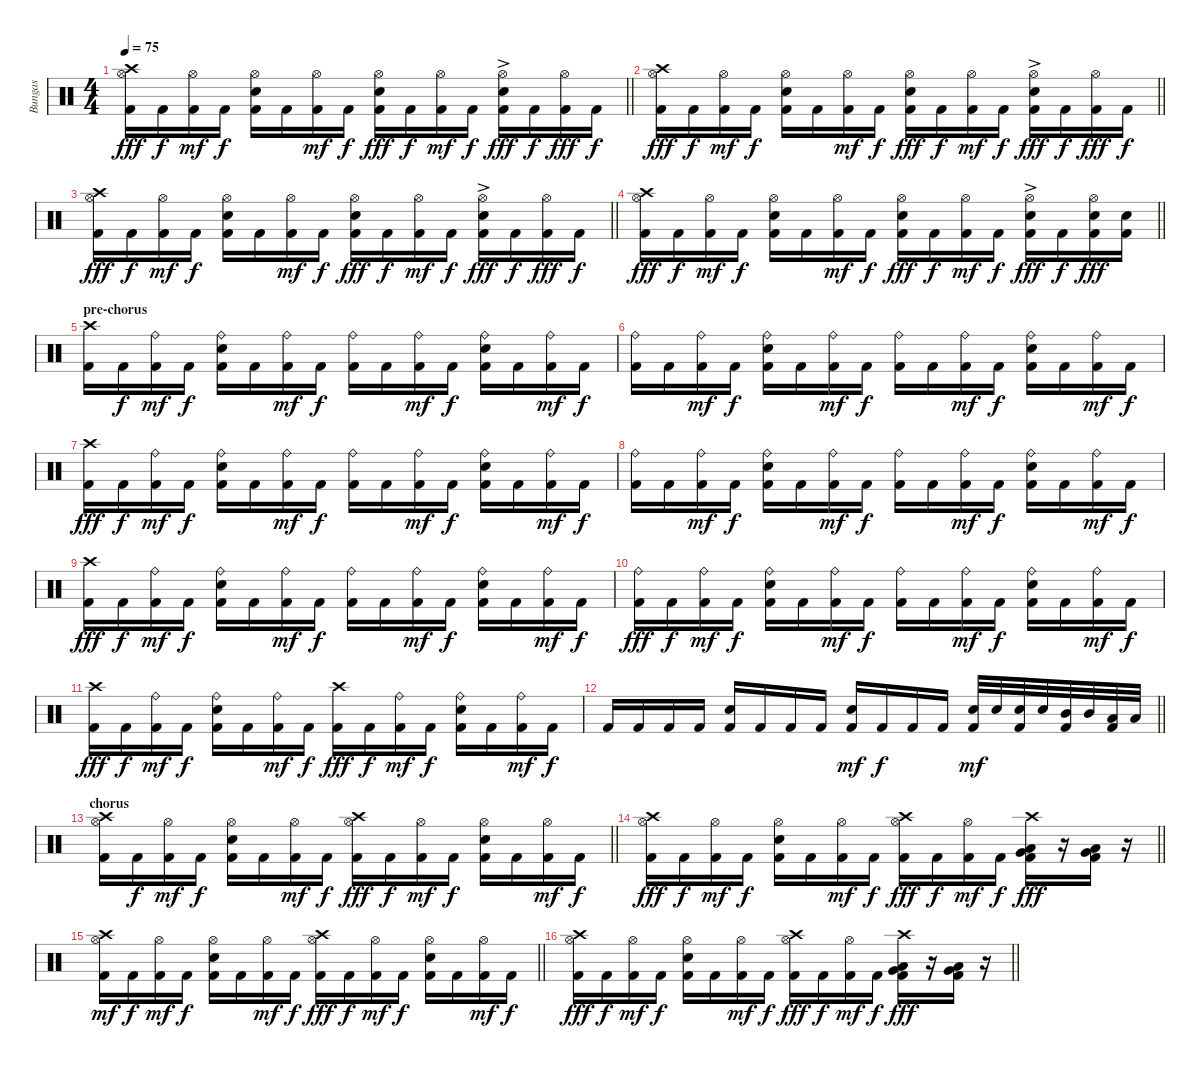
\track ("Bungas" "Bungas") {instrument percussion}
\staff {score}
\articulation defaults
\ts (4 4)
\tempo 75
\clef neutral
\barLineRight lightlight
\ks c
("Hi-Hat (open)" "Crash high (hit)" "Kick (hit) 2").16{dy fff} "Kick (hit) 2".16{dy f} ("Hi-Hat (open)" "Kick (hit) 2").16{dy mf} "Kick (hit) 2".16{dy f} ("Hi-Hat (open)" "Electric Snare (hit)" "Kick (hit) 2").16 "Kick (hit) 2".16 ("Hi-Hat (open)" "Kick (hit) 2").16{dy mf} "Kick (hit) 2".16{dy f} ("Hi-Hat (open)" "Electric Snare (hit)" "Kick (hit) 2").16{dy fff} "Kick (hit) 2".16{dy f} ("Hi-Hat (open)" "Kick (hit) 2").16{dy mf} "Kick (hit) 2".16{dy f} ("Hi-Hat (open)"{ac} "Electric Snare (hit)" "Kick (hit) 2").16{dy fff} "Kick (hit) 2".16{dy f} ("Hi-Hat (open)" "Kick (hit) 2").16{dy fff} "Kick (hit) 2".16{dy f} |
\barLineRight lightlight
("Hi-Hat (open)" "Crash high (hit)" "Kick (hit) 2").16{dy fff} "Kick (hit) 2".16{dy f} ("Hi-Hat (open)" "Kick (hit) 2").16{dy mf} "Kick (hit) 2".16{dy f} ("Hi-Hat (open)" "Electric Snare (hit)" "Kick (hit) 2").16 "Kick (hit) 2".16 ("Hi-Hat (open)" "Kick (hit) 2").16{dy mf} "Kick (hit) 2".16{dy f} ("Hi-Hat (open)" "Electric Snare (hit)" "Kick (hit) 2").16{dy fff} "Kick (hit) 2".16{dy f} ("Hi-Hat (open)" "Kick (hit) 2").16{dy mf} "Kick (hit) 2".16{dy f} ("Hi-Hat (open)"{ac} "Electric Snare (hit)" "Kick (hit) 2").16{dy fff} "Kick (hit) 2".16{dy f} ("Hi-Hat (open)" "Kick (hit) 2").16{dy fff} "Kick (hit) 2".16{dy f} |
\barLineRight lightlight
("Hi-Hat (open)" "Crash high (hit)" "Kick (hit) 2").16{dy fff} "Kick (hit) 2".16{dy f} ("Hi-Hat (open)" "Kick (hit) 2").16{dy mf} "Kick (hit) 2".16{dy f} ("Hi-Hat (open)" "Electric Snare (hit)" "Kick (hit) 2").16 "Kick (hit) 2".16 ("Hi-Hat (open)" "Kick (hit) 2").16{dy mf} "Kick (hit) 2".16{dy f} ("Hi-Hat (open)" "Electric Snare (hit)" "Kick (hit) 2").16{dy fff} "Kick (hit) 2".16{dy f} ("Hi-Hat (open)" "Kick (hit) 2").16{dy mf} "Kick (hit) 2".16{dy f} ("Hi-Hat (open)"{ac} "Electric Snare (hit)" "Kick (hit) 2").16{dy fff} "Kick (hit) 2".16{dy f} ("Hi-Hat (open)" "Kick (hit) 2").16{dy fff} "Kick (hit) 2".16{dy f} |
\barLineRight lightlight
("Hi-Hat (open)" "Crash high (hit)" "Kick (hit) 2").16{dy fff} "Kick (hit) 2".16{dy f} ("Hi-Hat (open)" "Kick (hit) 2").16{dy mf} "Kick (hit) 2".16{dy f} ("Hi-Hat (open)" "Electric Snare (hit)" "Kick (hit) 2").16 "Kick (hit) 2".16 ("Hi-Hat (open)" "Kick (hit) 2").16{dy mf} "Kick (hit) 2".16{dy f} ("Hi-Hat (open)" "Electric Snare (hit)" "Kick (hit) 2").16{dy fff} "Kick (hit) 2".16{dy f} ("Hi-Hat (open)" "Kick (hit) 2").16{dy mf} "Kick (hit) 2".16{dy f} ("Hi-Hat (open)"{ac} "Electric Snare (hit)" "Kick (hit) 2").16{dy fff} "Kick (hit) 2".16{dy f} ("Hi-Hat (open)" "Electric Snare (hit)" "Kick (hit) 2").16{dy fff} ("Electric Snare (hit)" "Kick (hit) 2").16 |
\section ("" "pre-chorus")
("Crash high (hit)" "Kick (hit) 2").16 "Kick (hit) 2".16{dy f} ("Ride (bell)" "Kick (hit) 2").16{dy mf} "Kick (hit) 2".16{dy f} ("Ride (bell)" "Electric Snare (hit)" "Kick (hit) 2").16 "Kick (hit) 2".16 ("Ride (bell)" "Kick (hit) 2").16{dy mf} "Kick (hit) 2".16{dy f} ("Ride (bell)" "Kick (hit) 2").16 "Kick (hit) 2".16 ("Ride (bell)" "Kick (hit) 2").16{dy mf} "Kick (hit) 2".16{dy f} ("Ride (bell)" "Electric Snare (hit)" "Kick (hit) 2").16 "Kick (hit) 2".16 ("Ride (bell)" "Kick (hit) 2").16{dy mf} "Kick (hit) 2".16{dy f} |
("Ride (bell)" "Kick (hit) 2").16 "Kick (hit) 2".16 ("Ride (bell)" "Kick (hit) 2").16{dy mf} "Kick (hit) 2".16{dy f} ("Ride (bell)" "Electric Snare (hit)" "Kick (hit) 2").16 "Kick (hit) 2".16 ("Ride (bell)" "Kick (hit) 2").16{dy mf} "Kick (hit) 2".16{dy f} ("Ride (bell)" "Kick (hit) 2").16 "Kick (hit) 2".16 ("Ride (bell)" "Kick (hit) 2").16{dy mf} "Kick (hit) 2".16{dy f} ("Ride (bell)" "Electric Snare (hit)" "Kick (hit) 2").16 "Kick (hit) 2".16 ("Ride (bell)" "Kick (hit) 2").16{dy mf} "Kick (hit) 2".16{dy f} |
("Crash high (hit)" "Kick (hit) 2").16{dy fff} "Kick (hit) 2".16{dy f} ("Ride (bell)" "Kick (hit) 2").16{dy mf} "Kick (hit) 2".16{dy f} ("Ride (bell)" "Electric Snare (hit)" "Kick (hit) 2").16 "Kick (hit) 2".16 ("Ride (bell)" "Kick (hit) 2").16{dy mf} "Kick (hit) 2".16{dy f} ("Ride (bell)" "Kick (hit) 2").16 "Kick (hit) 2".16 ("Ride (bell)" "Kick (hit) 2").16{dy mf} "Kick (hit) 2".16{dy f} ("Ride (bell)" "Electric Snare (hit)" "Kick (hit) 2").16 "Kick (hit) 2".16 ("Ride (bell)" "Kick (hit) 2").16{dy mf} "Kick (hit) 2".16{dy f} |
("Ride (bell)" "Kick (hit) 2").16 "Kick (hit) 2".16 ("Ride (bell)" "Kick (hit) 2").16{dy mf} "Kick (hit) 2".16{dy f} ("Ride (bell)" "Electric Snare (hit)" "Kick (hit) 2").16 "Kick (hit) 2".16 ("Ride (bell)" "Kick (hit) 2").16{dy mf} "Kick (hit) 2".16{dy f} ("Ride (bell)" "Kick (hit) 2").16 "Kick (hit) 2".16 ("Ride (bell)" "Kick (hit) 2").16{dy mf} "Kick (hit) 2".16{dy f} ("Ride (bell)" "Electric Snare (hit)" "Kick (hit) 2").16 "Kick (hit) 2".16 ("Ride (bell)" "Kick (hit) 2").16{dy mf} "Kick (hit) 2".16{dy f} |
("Crash high (hit)" "Kick (hit) 2").16{dy fff} "Kick (hit) 2".16{dy f} ("Ride (bell)" "Kick (hit) 2").16{dy mf} "Kick (hit) 2".16{dy f} ("Ride (bell)" "Electric Snare (hit)" "Kick (hit) 2").16 "Kick (hit) 2".16 ("Ride (bell)" "Kick (hit) 2").16{dy mf} "Kick (hit) 2".16{dy f} ("Ride (bell)" "Kick (hit) 2").16 "Kick (hit) 2".16 ("Ride (bell)" "Kick (hit) 2").16{dy mf} "Kick (hit) 2".16{dy f} ("Ride (bell)" "Electric Snare (hit)" "Kick (hit) 2").16 "Kick (hit) 2".16 ("Ride (bell)" "Kick (hit) 2").16{dy mf} "Kick (hit) 2".16{dy f} |
("Ride (bell)" "Kick (hit) 2").16{dy fff} "Kick (hit) 2".16{dy f} ("Ride (bell)" "Kick (hit) 2").16{dy mf} "Kick (hit) 2".16{dy f} ("Ride (bell)" "Electric Snare (hit)" "Kick (hit) 2").16 "Kick (hit) 2".16 ("Ride (bell)" "Kick (hit) 2").16{dy mf} "Kick (hit) 2".16{dy f} ("Ride (bell)" "Kick (hit) 2").16 "Kick (hit) 2".16 ("Ride (bell)" "Kick (hit) 2").16{dy mf} "Kick (hit) 2".16{dy f} ("Ride (bell)" "Electric Snare (hit)" "Kick (hit) 2").16 "Kick (hit) 2".16 ("Ride (bell)" "Kick (hit) 2").16{dy mf} "Kick (hit) 2".16{dy f} |
("Crash high (hit)" "Kick (hit) 2").16{dy fff} "Kick (hit) 2".16{dy f} ("Ride (bell)" "Kick (hit) 2").16{dy mf} "Kick (hit) 2".16{dy f} ("Ride (bell)" "Electric Snare (hit)" "Kick (hit) 2").16 "Kick (hit) 2".16 ("Ride (bell)" "Kick (hit) 2").16{dy mf} "Kick (hit) 2".16{dy f} ("Crash high (hit)" "Kick (hit) 2").16{dy fff} "Kick (hit) 2".16{dy f} ("Ride (bell)" "Kick (hit) 2").16{dy mf} "Kick (hit) 2".16{dy f} ("Ride (bell)" "Electric Snare (hit)" "Kick (hit) 2").16 "Kick (hit) 2".16 ("Ride (bell)" "Kick (hit) 2").16{dy mf} "Kick (hit) 2".16{dy f} |
\barLineRight lightlight "Kick (hit) 2".16 "Kick (hit) 2".16 "Kick (hit) 2".16 "Kick (hit) 2".16
("Electric Snare (hit)" "Kick (hit) 2").16 "Kick (hit) 2".16 "Kick (hit) 2".16 "Kick (hit) 2".16 ("Electric Snare (hit)" "Kick (hit) 2").16{dy mf} "Kick (hit) 2".16{dy f} "Kick (hit) 2".16 "Kick (hit) 2".16 ("Electric Snare (hit)" "Kick (hit) 2").32{dy mf} "Electric Snare (hit)".32 ("Electric Snare (hit)" "Kick (hit) 2").32 "Electric Snare (hit)".32 ("Mid Tom (hit)" "Kick (hit) 2").32 "Mid Tom (hit)".32 ("Low Tom (hit)" "Kick (hit) 2").32 "Low Tom (hit)".32 |
\section ("" "chorus")
\barLineRight lightlight
("Hi-Hat (open)" "Crash high (hit)" "Kick (hit) 2").16 "Kick (hit) 2".16{dy f} ("Hi-Hat (open)" "Kick (hit) 2").16{dy mf} "Kick (hit) 2".16{dy f} ("Hi-Hat (open)" "Electric Snare (hit)" "Kick (hit) 2").16 "Kick (hit) 2".16 ("Hi-Hat (open)" "Kick (hit) 2").16{dy mf} "Kick (hit) 2".16{dy f} ("Hi-Hat (open)" "Crash high (hit)" "Kick (hit) 2").16{dy fff} "Kick (hit) 2".16{dy f} ("Hi-Hat (open)" "Kick (hit) 2").16{dy mf} "Kick (hit) 2".16{dy f} ("Hi-Hat (open)" "Electric Snare (hit)" "Kick (hit) 2").16 "Kick (hit) 2".16 ("Hi-Hat (open)" "Kick (hit) 2").16{dy mf} "Kick (hit) 2".16{dy f} |
\barLineRight lightlight
("Hi-Hat (open)" "Crash high (hit)" "Kick (hit) 2").16{dy fff} "Kick (hit) 2".16{dy f} ("Hi-Hat (open)" "Kick (hit) 2").16{dy mf} "Kick (hit) 2".16{dy f} ("Hi-Hat (open)" "Electric Snare (hit)" "Kick (hit) 2").16 "Kick (hit) 2".16 ("Hi-Hat (open)" "Kick (hit) 2").16{dy mf} "Kick (hit) 2".16{dy f} ("Hi-Hat (open)" "Crash high (hit)" "Kick (hit) 2").16{dy fff} "Kick (hit) 2".16{dy f} ("Hi-Hat (open)" "Kick (hit) 2").16{dy mf} "Kick (hit) 2".16{dy f} ("Very Low Tom (hit)" "Low Floor Tom (hit)" "Crash high (hit)" "Kick (hit) 2").16{dy fff} r.16 ("Very Low Tom (hit)" "Low Floor Tom (hit)" "Kick (hit) 2").16 r.16 |
\barLineRight lightlight
("Hi-Hat (open)" "Crash high (hit)" "Kick (hit) 2").16{dy mf} "Kick (hit) 2".16{dy f} ("Hi-Hat (open)" "Kick (hit) 2").16{dy mf} "Kick (hit) 2".16{dy f} ("Hi-Hat (open)" "Electric Snare (hit)" "Kick (hit) 2").16 "Kick (hit) 2".16 ("Hi-Hat (open)" "Kick (hit) 2").16{dy mf} "Kick (hit) 2".16{dy f} ("Hi-Hat (open)" "Crash high (hit)" "Kick (hit) 2").16{dy fff} "Kick (hit) 2".16{dy f} ("Hi-Hat (open)" "Kick (hit) 2").16{dy mf} "Kick (hit) 2".16{dy f} ("Hi-Hat (open)" "Electric Snare (hit)" "Kick (hit) 2").16 "Kick (hit) 2".16 ("Hi-Hat (open)" "Kick (hit) 2").16{dy mf} "Kick (hit) 2".16{dy f} |
\barLineRight lightlight
("Hi-Hat (open)" "Crash high (hit)" "Kick (hit) 2").16{dy fff} "Kick (hit) 2".16{dy f} ("Hi-Hat (open)" "Kick (hit) 2").16{dy mf} "Kick (hit) 2".16{dy f} ("Hi-Hat (open)" "Electric Snare (hit)" "Kick (hit) 2").16 "Kick (hit) 2".16 ("Hi-Hat (open)" "Kick (hit) 2").16{dy mf} "Kick (hit) 2".16{dy f} ("Hi-Hat (open)" "Crash high (hit)" "Kick (hit) 2").16{dy fff} "Kick (hit) 2".16{dy f} ("Hi-Hat (open)" "Kick (hit) 2").16{dy mf} "Kick (hit) 2".16{dy f} ("Very Low Tom (hit)" "Low Floor Tom (hit)" "Crash high (hit)" "Kick (hit) 2").16{dy fff} r.16 ("Very Low Tom (hit)" "Low Floor Tom (hit)" "Kick (hit) 2").16 r.16
